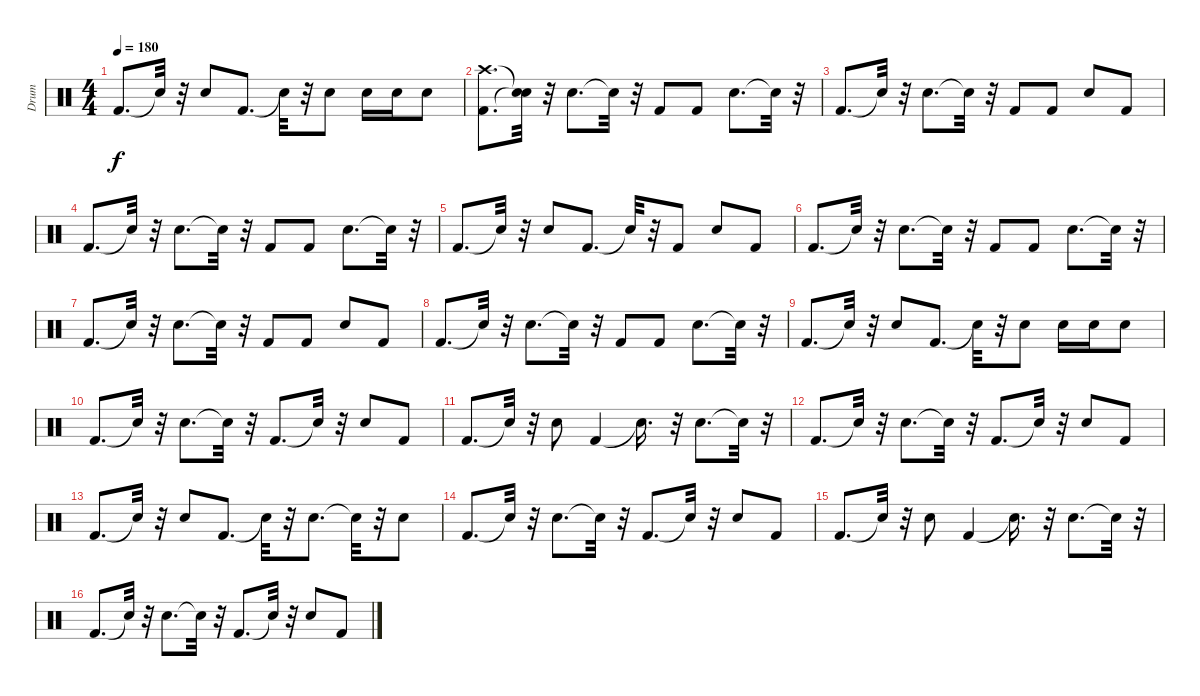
\track ("Drum" "Drum") {instrument percussion}
\staff {score}
\articulation defaults
\ts (4 4)
\tempo 180
\clef neutral
\ks c "Kick (hit) 2".8{d dy f} "Snare (hit)"{t}.32
r.32 "Snare (hit) 2".8 "Kick (hit) 2".8{d} "Snare (hit)"{t}.32 r.32 "Snare (hit) 2".8 "Snare (hit) 2".16 "Snare (hit) 2".16 "Snare (hit) 2".8 |
("Crash high (hit)" "Kick (hit) 2").8{d} ("Snare (hit)"{t} "Snare (hit)"{t}).32 r.32 "Snare (hit) 2".8{d} "Snare (hit)"{t}.32 r.32 "Kick (hit) 2".8 "Kick (hit) 2".8 "Snare (hit) 2".8{d} "Snare (hit)"{t}.32 r.32 |
"Kick (hit) 2".8{d} "Snare (hit)"{t}.32 r.32 "Snare (hit) 2".8{d} "Snare (hit)"{t}.32 r.32 "Kick (hit) 2".8 "Kick (hit) 2".8 "Snare (hit) 2".8 "Kick (hit) 2".8 |
"Kick (hit) 2".8{d} "Snare (hit)"{t}.32 r.32 "Snare (hit) 2".8{d} "Snare (hit)"{t}.32 r.32 "Kick (hit) 2".8 "Kick (hit) 2".8 "Snare (hit) 2".8{d} "Snare (hit)"{t}.32 r.32 |
"Kick (hit) 2".8{d} "Snare (hit)"{t}.32 r.32 "Snare (hit) 2".8 "Kick (hit) 2".8{d} "Snare (hit)"{t}.32 r.32 "Kick (hit) 2".8 "Snare (hit) 2".8 "Kick (hit) 2".8 |
"Kick (hit) 2".8{d} "Snare (hit)"{t}.32 r.32 "Snare (hit) 2".8{d} "Snare (hit)"{t}.32 r.32 "Kick (hit) 2".8 "Kick (hit) 2".8 "Snare (hit) 2".8{d} "Snare (hit)"{t}.32 r.32 |
"Kick (hit) 2".8{d} "Snare (hit)"{t}.32 r.32 "Snare (hit) 2".8{d} "Snare (hit)"{t}.32 r.32 "Kick (hit) 2".8 "Kick (hit) 2".8 "Snare (hit) 2".8 "Kick (hit) 2".8 |
"Kick (hit) 2".8{d} "Snare (hit)"{t}.32 r.32 "Snare (hit) 2".8{d} "Snare (hit)"{t}.32 r.32 "Kick (hit) 2".8 "Kick (hit) 2".8 "Snare (hit) 2".8{d} "Snare (hit)"{t}.32 r.32 |
"Kick (hit) 2".8{d} "Snare (hit)"{t}.32 r.32 "Snare (hit) 2".8 "Kick (hit) 2".8{d} "Snare (hit)"{t}.32 r.32 "Snare (hit) 2".8 "Snare (hit) 2".16 "Snare (hit) 2".16 "Snare (hit) 2".8 |
"Kick (hit) 2".8{d} "Snare (hit)"{t}.32 r.32 "Snare (hit) 2".8{d} "Snare (hit)"{t}.32 r.32 "Kick (hit) 2".8{d} "Snare (hit)"{t}.32 r.32 "Snare (hit) 2".8 "Kick (hit) 2".8 |
"Kick (hit) 2".8{d} "Snare (hit)"{t}.32 r.32 "Snare (hit) 2".8 "Kick (hit) 2".4 "Snare (hit)"{t}.16{d} r.32 "Snare (hit) 2".8{d} "Snare (hit)"{t}.32 r.32 |
"Kick (hit) 2".8{d} "Snare (hit)"{t}.32 r.32 "Snare (hit) 2".8{d} "Snare (hit)"{t}.32 r.32 "Kick (hit) 2".8{d} "Snare (hit)"{t}.32 r.32 "Snare (hit) 2".8 "Kick (hit) 2".8 |
"Kick (hit) 2".8{d} "Snare (hit)"{t}.32 r.32 "Snare (hit) 2".8 "Kick (hit) 2".8{d} "Snare (hit)"{t}.32 r.32 "Snare (hit) 2".8{d} "Snare (hit)"{t}.32 r.32 "Snare (hit) 2".8 |
"Kick (hit) 2".8{d} "Snare (hit)"{t}.32 r.32 "Snare (hit) 2".8{d} "Snare (hit)"{t}.32 r.32 "Kick (hit) 2".8{d} "Snare (hit)"{t}.32 r.32 "Snare (hit) 2".8 "Kick (hit) 2".8 |
"Kick (hit) 2".8{d} "Snare (hit)"{t}.32 r.32 "Snare (hit) 2".8 "Kick (hit) 2".4 "Snare (hit)"{t}.16{d} r.32 "Snare (hit) 2".8{d} "Snare (hit)"{t}.32 r.32 |
"Kick (hit) 2".8{d} "Snare (hit)"{t}.32 r.32 "Snare (hit) 2".8{d} "Snare (hit)"{t}.32 r.32 "Kick (hit) 2".8{d} "Snare (hit)"{t}.32 r.32 "Snare (hit) 2".8 "Kick (hit) 2".8
